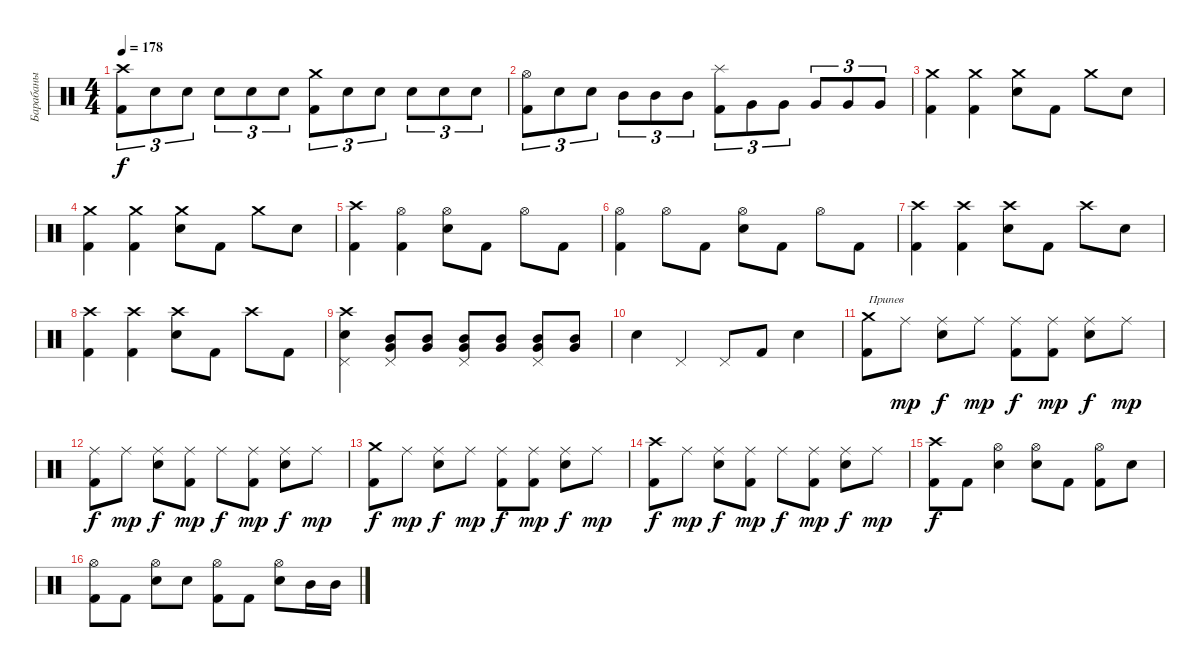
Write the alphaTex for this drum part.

\track ("Барабаны" "Барабаны") {instrument percussion}
\staff {score}
\articulation defaults
\ts (4 4)
\tempo 178
\clef neutral
\ks c
("Crash high (hit)" "Kick (hit) 2").8{tu (3 2) dy f} "Electric Snare (hit)".8{tu (3 2)} "Electric Snare (hit)".8{tu (3 2)} "Electric Snare (hit)".8{tu (3 2)} "Electric Snare (hit)".8{tu (3 2)} "Electric Snare (hit)".8{tu (3 2)} ("Crash medium (hit)" "Kick (hit) 2").8{tu (3 2)} "Electric Snare (hit)".8{tu (3 2)} "Electric Snare (hit)".8{tu (3 2)} "Electric Snare (hit)".8{tu (3 2)} "Electric Snare (hit)".8{tu (3 2)} "Electric Snare (hit)".8{tu (3 2)} |
("Hi-Hat (open)" "Kick (hit) 2").8{tu (3 2)} "Electric Snare (hit)".8{tu (3 2)} "Electric Snare (hit)".8{tu (3 2)} "Mid Tom (hit)".8{tu (3 2)} "Mid Tom (hit)".8{tu (3 2)} "Mid Tom (hit)".8{tu (3 2)} ("Splash (hit)" "Kick (hit) 2").8{tu (3 2)} "Very Low Tom (hit)".8{tu (3 2)} "Very Low Tom (hit)".8{tu (3 2)} "Very Low Tom (hit)".8{tu (3 2)} "Very Low Tom (hit)".8{tu (3 2)} "Very Low Tom (hit)".8{tu (3 2)} |
("Crash medium (hit)" "Kick (hit) 2").4 ("Crash medium (hit)" "Kick (hit) 2").4 ("Crash medium (hit)" "Electric Snare (hit)").8 "Kick (hit) 2".8 "Crash medium (hit)".8 "Electric Snare (hit)".8 |
("Crash medium (hit)" "Kick (hit) 2").4 ("Crash medium (hit)" "Kick (hit) 2").4 ("Crash medium (hit)" "Electric Snare (hit)").8 "Kick (hit) 2".8 "Crash medium (hit)".8 "Electric Snare (hit)".8 |
("Crash high (hit)" "Kick (hit) 2").4 ("Hi-Hat (open)" "Kick (hit) 2").4 ("Hi-Hat (open)" "Electric Snare (hit)").8 "Kick (hit) 2".8 "Hi-Hat (open)".8 "Kick (hit) 2".8 |
("Hi-Hat (open)" "Kick (hit) 2").4 "Hi-Hat (open)".8 "Kick (hit) 2".8 ("Hi-Hat (open)" "Electric Snare (hit)").8 "Kick (hit) 2".8 "Hi-Hat (open)".8 "Kick (hit) 2".8 |
("Crash high (hit)" "Kick (hit) 2").4 ("Crash high (hit)" "Kick (hit) 2").4 ("Crash high (hit)" "Electric Snare (hit)").8 "Kick (hit) 2".8 "Crash high (hit)".8 "Electric Snare (hit)".8 |
("Crash high (hit)" "Kick (hit) 2").4 ("Crash high (hit)" "Kick (hit) 2").4 ("Crash high (hit)" "Electric Snare (hit)").8 "Kick (hit) 2".8 "Crash high (hit)".8 "Kick (hit) 2".8 |
("Crash high (hit)" "Pedal Hi-Hat (hit)" "Electric Snare (hit)").4 ("Pedal Hi-Hat (hit)" "Mid Tom (hit)" "Very Low Tom (hit)").8 ("Mid Tom (hit)" "Very Low Tom (hit)").8 ("Pedal Hi-Hat (hit)" "Mid Tom (hit)" "Very Low Tom (hit)").8 ("Mid Tom (hit)" "Very Low Tom (hit)").8 ("Pedal Hi-Hat (hit)" "Mid Tom (hit)" "Very Low Tom (hit)").8 ("Mid Tom (hit)" "Very Low Tom (hit)").8 |
"Electric Snare (hit)".4 "Pedal Hi-Hat (hit)".4 "Pedal Hi-Hat (hit)".8 "Kick (hit) 2".8 "Electric Snare (hit)".4 |
("Crash medium (hit)" "Kick (hit) 2").8{txt "Припев"} "Ride (middle)".8{dy mp} ("Ride (middle)" "Electric Snare (hit)").8{dy f} "Ride (middle)".8{dy mp} ("Ride (middle)" "Kick (hit) 2").8{dy f} ("Ride (middle)" "Kick (hit) 2").8{dy mp} ("Ride (middle)" "Electric Snare (hit)").8{dy f} "Ride (middle)".8{dy mp} |
("Ride (middle)" "Kick (hit) 2").8{dy f} "Ride (middle)".8{dy mp} ("Ride (middle)" "Electric Snare (hit)").8{dy f} ("Ride (middle)" "Kick (hit) 2").8{dy mp} "Ride (middle)".8{dy f} ("Ride (middle)" "Kick (hit) 2").8{dy mp} ("Ride (middle)" "Electric Snare (hit)").8{dy f} "Ride (middle)".8{dy mp} |
("Crash medium (hit)" "Kick (hit) 2").8{dy f} "Ride (middle)".8{dy mp} ("Ride (middle)" "Electric Snare (hit)").8{dy f} "Ride (middle)".8{dy mp} ("Ride (middle)" "Kick (hit) 2").8{dy f} ("Ride (middle)" "Kick (hit) 2").8{dy mp} ("Ride (middle)" "Electric Snare (hit)").8{dy f} "Ride (middle)".8{dy mp} |
("Crash high (hit)" "Kick (hit) 2").8{dy f} "Ride (middle)".8{dy mp} ("Ride (middle)" "Electric Snare (hit)").8{dy f} ("Ride (middle)" "Kick (hit) 2").8{dy mp} "Ride (middle)".8{dy f} ("Ride (middle)" "Kick (hit) 2").8{dy mp} ("Ride (middle)" "Electric Snare (hit)").8{dy f} "Ride (middle)".8{dy mp} |
("Crash high (hit)" "Kick (hit) 2").8{dy f} "Kick (hit) 2".8 ("Hi-Hat (open)" "Electric Snare (hit)").4 ("Hi-Hat (open)" "Electric Snare (hit)").8 "Kick (hit) 2".8 ("Hi-Hat (open)" "Kick (hit) 2").8 "Electric Snare (hit)".8 |
("Hi-Hat (open)" "Kick (hit) 2").8 "Kick (hit) 2".8 ("Hi-Hat (open)" "Electric Snare (hit)").8 "Electric Snare (hit)".8 ("Hi-Hat (open)" "Kick (hit) 2").8 "Kick (hit) 2".8 ("Hi-Hat (open)" "Electric Snare (hit)").8 "Mid Tom (hit)".16 "Mid Tom (hit)".16
